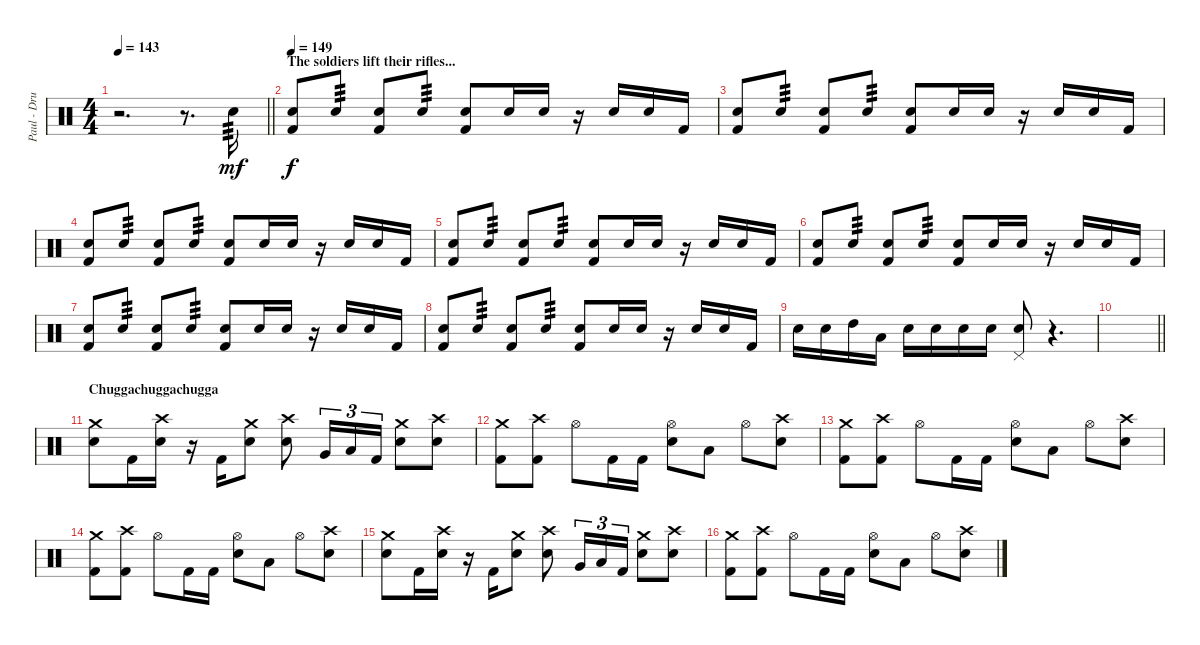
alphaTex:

\track ("Paul - Drums" "Paul - Dru") {instrument percussion}
\staff {score}
\articulation defaults
\ts (4 4)
\tempo 143
\clef neutral
\barLineRight lightlight
\ks c
r.2{d dy ff} r.8{d} "Electric Snare (hit)".16{tp 3 dy mf volume 9} |
\section ("" "The soldiers lift their rifles...")
\tempo 149
("Electric Snare (hit)" "Kick (hit) 2").8{dy f} "Electric Snare (hit)".8{tp 3} ("Electric Snare (hit)" "Kick (hit) 2").8 "Electric Snare (hit)".8{tp 3} ("Electric Snare (hit)" "Kick (hit) 2").8 "Electric Snare (hit)".16 "Electric Snare (hit)".16 r.16 "Electric Snare (hit)".16 "Electric Snare (hit)".16 "Kick (hit) 2".16 |
("Electric Snare (hit)" "Kick (hit) 2").8 "Electric Snare (hit)".8{tp 3} ("Electric Snare (hit)" "Kick (hit) 2").8 "Electric Snare (hit)".8{tp 3} ("Electric Snare (hit)" "Kick (hit) 2").8 "Electric Snare (hit)".16 "Electric Snare (hit)".16 r.16 "Electric Snare (hit)".16 "Electric Snare (hit)".16 "Kick (hit) 2".16 |
("Electric Snare (hit)" "Kick (hit) 2").8 "Electric Snare (hit)".8{tp 3} ("Electric Snare (hit)" "Kick (hit) 2").8 "Electric Snare (hit)".8{tp 3} ("Electric Snare (hit)" "Kick (hit) 2").8 "Electric Snare (hit)".16 "Electric Snare (hit)".16 r.16 "Electric Snare (hit)".16 "Electric Snare (hit)".16 "Kick (hit) 2".16 |
("Electric Snare (hit)" "Kick (hit) 2").8 "Electric Snare (hit)".8{tp 3} ("Electric Snare (hit)" "Kick (hit) 2").8 "Electric Snare (hit)".8{tp 3} ("Electric Snare (hit)" "Kick (hit) 2").8 "Electric Snare (hit)".16 "Electric Snare (hit)".16 r.16 "Electric Snare (hit)".16 "Electric Snare (hit)".16 "Kick (hit) 2".16 |
("Electric Snare (hit)" "Kick (hit) 2").8 "Electric Snare (hit)".8{tp 3} ("Electric Snare (hit)" "Kick (hit) 2").8 "Electric Snare (hit)".8{tp 3} ("Electric Snare (hit)" "Kick (hit) 2").8 "Electric Snare (hit)".16 "Electric Snare (hit)".16 r.16 "Electric Snare (hit)".16 "Electric Snare (hit)".16 "Kick (hit) 2".16 |
("Electric Snare (hit)" "Kick (hit) 2").8 "Electric Snare (hit)".8{tp 3} ("Electric Snare (hit)" "Kick (hit) 2").8 "Electric Snare (hit)".8{tp 3} ("Electric Snare (hit)" "Kick (hit) 2").8 "Electric Snare (hit)".16 "Electric Snare (hit)".16 r.16 "Electric Snare (hit)".16 "Electric Snare (hit)".16 "Kick (hit) 2".16 |
("Electric Snare (hit)" "Kick (hit) 2").8 "Electric Snare (hit)".8{tp 3} ("Electric Snare (hit)" "Kick (hit) 2").8 "Electric Snare (hit)".8{tp 3} ("Electric Snare (hit)" "Kick (hit) 2").8 "Electric Snare (hit)".16 "Electric Snare (hit)".16 r.16 "Electric Snare (hit)".16 "Electric Snare (hit)".16 "Kick (hit) 2".16 |
"Electric Snare (hit)".16{volume 12} "Electric Snare (hit)".16 "High Tom (hit)".16 "Low Tom (hit)".16 "Electric Snare (hit)".16 "Electric Snare (hit)".16 "Electric Snare (hit)".16 "Electric Snare (hit)".16 ("Pedal Hi-Hat (hit)" "Electric Snare (hit)").8 r.4{d} |
\barLineRight lightlight
|
\section ("" "Chuggachuggachugga")
("Crash medium (hit)" "Electric Snare (hit)").8 "Kick (hit) 2".16 ("Crash high (hit)" "Electric Snare (hit)").16 r.16 "Kick (hit) 2".16 ("Crash medium (hit)" "Electric Snare (hit)").8 ("Crash high (hit)" "Electric Snare (hit)").8 "Very Low Tom (hit)".16{tu (3 2)} "Low Floor Tom (hit)".16{tu (3 2)} "Kick (hit) 2".16{tu (3 2)} ("Crash medium (hit)" "Electric Snare (hit)").8 ("Crash high (hit)" "Electric Snare (hit)").8 |
("Crash medium (hit)" "Kick (hit) 2").8 ("Crash high (hit)" "Kick (hit) 2").8 "Hi-Hat (open)".8 "Kick (hit) 2".16 "Kick (hit) 2".16 ("Hi-Hat (open)" "Electric Snare (hit)").8 "Low Tom (hit)".8 "Hi-Hat (open)".8 ("Crash high (hit)" "Electric Snare (hit)").8 |
("Crash medium (hit)" "Kick (hit) 2").8 ("Crash high (hit)" "Kick (hit) 2").8 "Hi-Hat (open)".8 "Kick (hit) 2".16 "Kick (hit) 2".16 ("Hi-Hat (open)" "Electric Snare (hit)").8 "Low Tom (hit)".8 "Hi-Hat (open)".8 ("Crash high (hit)" "Electric Snare (hit)").8 |
("Crash medium (hit)" "Kick (hit) 2").8 ("Crash high (hit)" "Kick (hit) 2").8 "Hi-Hat (open)".8 "Kick (hit) 2".16 "Kick (hit) 2".16 ("Hi-Hat (open)" "Electric Snare (hit)").8 "Low Tom (hit)".8 "Hi-Hat (open)".8 ("Crash high (hit)" "Electric Snare (hit)").8 |
("Crash medium (hit)" "Electric Snare (hit)").8 "Kick (hit) 2".16 ("Crash high (hit)" "Electric Snare (hit)").16 r.16 "Kick (hit) 2".16 ("Crash medium (hit)" "Electric Snare (hit)").8 ("Crash high (hit)" "Electric Snare (hit)").8 "Very Low Tom (hit)".16{tu (3 2)} "Low Floor Tom (hit)".16{tu (3 2)} "Kick (hit) 2".16{tu (3 2)} ("Crash medium (hit)" "Electric Snare (hit)").8 ("Crash high (hit)" "Electric Snare (hit)").8 |
("Crash medium (hit)" "Kick (hit) 2").8 ("Crash high (hit)" "Kick (hit) 2").8 "Hi-Hat (open)".8 "Kick (hit) 2".16 "Kick (hit) 2".16 ("Hi-Hat (open)" "Electric Snare (hit)").8 "Low Tom (hit)".8 "Hi-Hat (open)".8 ("Crash high (hit)" "Electric Snare (hit)").8
